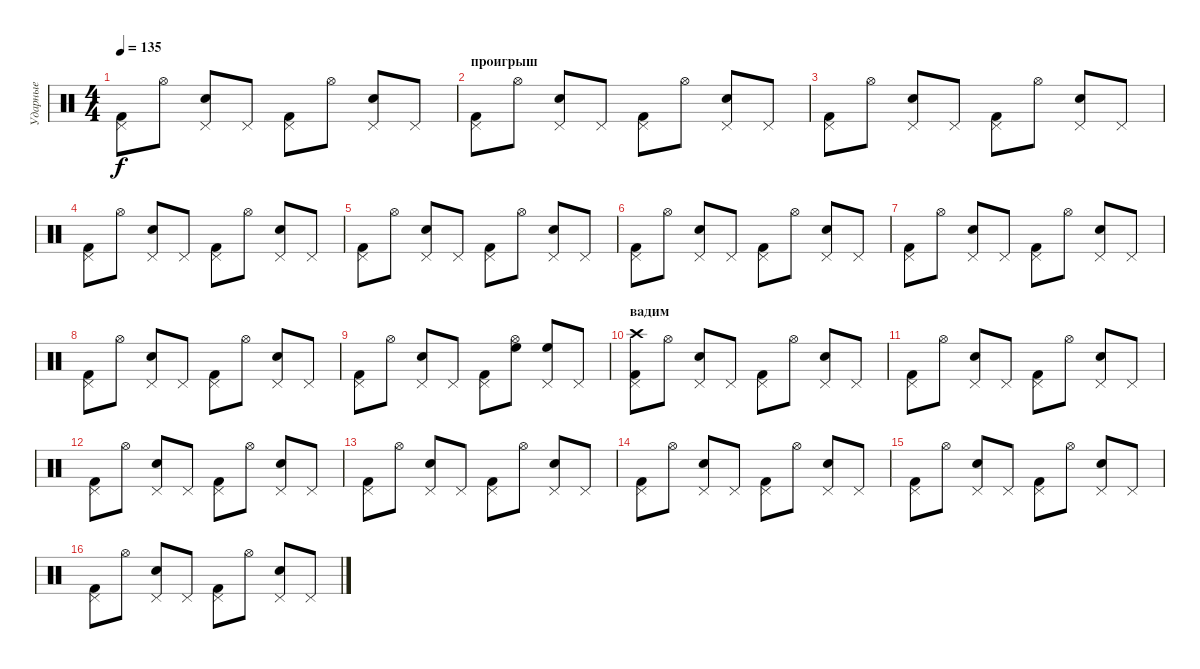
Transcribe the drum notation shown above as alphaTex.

\track ("Ударные" "Ударные") {instrument percussion}
\staff {score}
\articulation defaults
\ts (4 4)
\tempo 135
\clef neutral
\ks c
("Pedal Hi-Hat (hit)" "Kick (hit) 2").8{dy f} "Hi-Hat (open)".8 ("Pedal Hi-Hat (hit)" "Snare (hit) 2").8 "Pedal Hi-Hat (hit)".8 ("Pedal Hi-Hat (hit)" "Kick (hit) 2").8 "Hi-Hat (open)".8 ("Pedal Hi-Hat (hit)" "Snare (hit) 2").8 "Pedal Hi-Hat (hit)".8 |
\section ("" "проигрыш")
("Pedal Hi-Hat (hit)" "Kick (hit) 2").8 "Hi-Hat (open)".8 ("Pedal Hi-Hat (hit)" "Snare (hit) 2").8 "Pedal Hi-Hat (hit)".8 ("Pedal Hi-Hat (hit)" "Kick (hit) 2").8 "Hi-Hat (open)".8 ("Pedal Hi-Hat (hit)" "Snare (hit) 2").8 "Pedal Hi-Hat (hit)".8 |
("Pedal Hi-Hat (hit)" "Kick (hit) 2").8 "Hi-Hat (open)".8 ("Pedal Hi-Hat (hit)" "Snare (hit) 2").8 "Pedal Hi-Hat (hit)".8 ("Pedal Hi-Hat (hit)" "Kick (hit) 2").8 "Hi-Hat (open)".8 ("Pedal Hi-Hat (hit)" "Snare (hit) 2").8 "Pedal Hi-Hat (hit)".8 |
("Pedal Hi-Hat (hit)" "Kick (hit) 2").8 "Hi-Hat (open)".8 ("Pedal Hi-Hat (hit)" "Snare (hit) 2").8 "Pedal Hi-Hat (hit)".8 ("Pedal Hi-Hat (hit)" "Kick (hit) 2").8 "Hi-Hat (open)".8 ("Pedal Hi-Hat (hit)" "Snare (hit) 2").8 "Pedal Hi-Hat (hit)".8 |
("Pedal Hi-Hat (hit)" "Kick (hit) 2").8 "Hi-Hat (open)".8 ("Pedal Hi-Hat (hit)" "Snare (hit) 2").8 "Pedal Hi-Hat (hit)".8 ("Pedal Hi-Hat (hit)" "Kick (hit) 2").8 "Hi-Hat (open)".8 ("Pedal Hi-Hat (hit)" "Snare (hit) 2").8 "Pedal Hi-Hat (hit)".8 |
("Pedal Hi-Hat (hit)" "Kick (hit) 2").8 "Hi-Hat (open)".8 ("Pedal Hi-Hat (hit)" "Snare (hit) 2").8 "Pedal Hi-Hat (hit)".8 ("Pedal Hi-Hat (hit)" "Kick (hit) 2").8 "Hi-Hat (open)".8 ("Pedal Hi-Hat (hit)" "Snare (hit) 2").8 "Pedal Hi-Hat (hit)".8 |
("Pedal Hi-Hat (hit)" "Kick (hit) 2").8 "Hi-Hat (open)".8 ("Pedal Hi-Hat (hit)" "Snare (hit) 2").8 "Pedal Hi-Hat (hit)".8 ("Pedal Hi-Hat (hit)" "Kick (hit) 2").8 "Hi-Hat (open)".8 ("Pedal Hi-Hat (hit)" "Snare (hit) 2").8 "Pedal Hi-Hat (hit)".8 |
("Pedal Hi-Hat (hit)" "Kick (hit) 2").8 "Hi-Hat (open)".8 ("Pedal Hi-Hat (hit)" "Snare (hit) 2").8 "Pedal Hi-Hat (hit)".8 ("Pedal Hi-Hat (hit)" "Kick (hit) 2").8 "Hi-Hat (open)".8 ("Pedal Hi-Hat (hit)" "Snare (hit) 2").8 "Pedal Hi-Hat (hit)".8 |
("Pedal Hi-Hat (hit)" "Kick (hit) 2").8 "Hi-Hat (open)".8 ("Pedal Hi-Hat (hit)" "Snare (hit) 2").8 "Pedal Hi-Hat (hit)".8 ("Pedal Hi-Hat (hit)" "Kick (hit) 2").8 ("Hi-Hat (open)" "High Floor Tom (hit)").8 ("Pedal Hi-Hat (hit)" "High Floor Tom (hit)").8 "Pedal Hi-Hat (hit)".8 |
\section ("" "вадим")
("Pedal Hi-Hat (hit)" "Kick (hit) 2" "Crash high (hit)").8 "Hi-Hat (open)".8 ("Pedal Hi-Hat (hit)" "Snare (hit) 2").8 "Pedal Hi-Hat (hit)".8 ("Pedal Hi-Hat (hit)" "Kick (hit) 2").8 "Hi-Hat (open)".8 ("Pedal Hi-Hat (hit)" "Snare (hit) 2").8 "Pedal Hi-Hat (hit)".8 |
("Pedal Hi-Hat (hit)" "Kick (hit) 2").8 "Hi-Hat (open)".8 ("Pedal Hi-Hat (hit)" "Snare (hit) 2").8 "Pedal Hi-Hat (hit)".8 ("Pedal Hi-Hat (hit)" "Kick (hit) 2").8 "Hi-Hat (open)".8 ("Pedal Hi-Hat (hit)" "Snare (hit) 2").8 "Pedal Hi-Hat (hit)".8 |
("Pedal Hi-Hat (hit)" "Kick (hit) 2").8 "Hi-Hat (open)".8 ("Pedal Hi-Hat (hit)" "Snare (hit) 2").8 "Pedal Hi-Hat (hit)".8 ("Pedal Hi-Hat (hit)" "Kick (hit) 2").8 "Hi-Hat (open)".8 ("Pedal Hi-Hat (hit)" "Snare (hit) 2").8 "Pedal Hi-Hat (hit)".8 |
("Pedal Hi-Hat (hit)" "Kick (hit) 2").8 "Hi-Hat (open)".8 ("Pedal Hi-Hat (hit)" "Snare (hit) 2").8 "Pedal Hi-Hat (hit)".8 ("Pedal Hi-Hat (hit)" "Kick (hit) 2").8 "Hi-Hat (open)".8 ("Pedal Hi-Hat (hit)" "Snare (hit) 2").8 "Pedal Hi-Hat (hit)".8 |
("Pedal Hi-Hat (hit)" "Kick (hit) 2").8 "Hi-Hat (open)".8 ("Pedal Hi-Hat (hit)" "Snare (hit) 2").8 "Pedal Hi-Hat (hit)".8 ("Pedal Hi-Hat (hit)" "Kick (hit) 2").8 "Hi-Hat (open)".8 ("Pedal Hi-Hat (hit)" "Snare (hit) 2").8 "Pedal Hi-Hat (hit)".8 |
("Pedal Hi-Hat (hit)" "Kick (hit) 2").8 "Hi-Hat (open)".8 ("Pedal Hi-Hat (hit)" "Snare (hit) 2").8 "Pedal Hi-Hat (hit)".8 ("Pedal Hi-Hat (hit)" "Kick (hit) 2").8 "Hi-Hat (open)".8 ("Pedal Hi-Hat (hit)" "Snare (hit) 2").8 "Pedal Hi-Hat (hit)".8 |
("Pedal Hi-Hat (hit)" "Kick (hit) 2").8 "Hi-Hat (open)".8 ("Pedal Hi-Hat (hit)" "Snare (hit) 2").8 "Pedal Hi-Hat (hit)".8 ("Pedal Hi-Hat (hit)" "Kick (hit) 2").8 "Hi-Hat (open)".8 ("Pedal Hi-Hat (hit)" "Snare (hit) 2").8 "Pedal Hi-Hat (hit)".8
